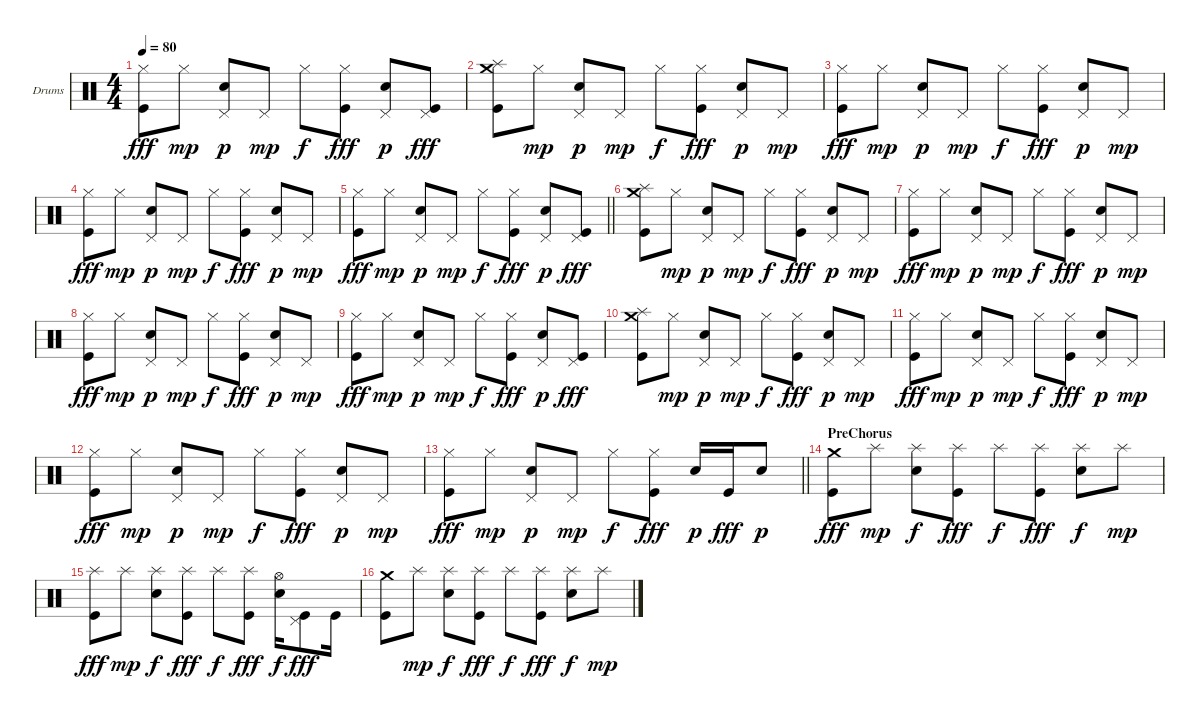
\bracketExtendMode groupsimilarinstruments
\firstSystemTrackNameOrientation horizontal
\otherSystemsTrackNameOrientation horizontal
\track ("Drumkit" "Drums") {instrument percussion}
\staff {score}
\articulation defaults
\ts (4 4)
\tempo 80
\clef neutral
\ks c
("Kick (hit)" "Hi-Hat (closed)").8{dy fff} "Hi-Hat (closed)".8{dy mp} ("Pedal Hi-Hat (hit)" "Snare (hit) 2").8{dy p} "Pedal Hi-Hat (hit)".8{dy mp} "Hi-Hat (closed)".8{dy f} ("Kick (hit)" "Hi-Hat (closed)").8{dy fff} ("Pedal Hi-Hat (hit)" "Snare (hit) 2").8{dy p} ("Kick (hit)" "Pedal Hi-Hat (hit)").8{dy fff} |
("Kick (hit)" "Crash medium (hit)" "Splash (hit)").8 "Hi-Hat (closed)".8{dy mp} ("Pedal Hi-Hat (hit)" "Snare (hit) 2").8{dy p} "Pedal Hi-Hat (hit)".8{dy mp} "Hi-Hat (closed)".8{dy f} ("Kick (hit)" "Hi-Hat (closed)").8{dy fff} ("Pedal Hi-Hat (hit)" "Snare (hit) 2").8{dy p} "Pedal Hi-Hat (hit)".8{dy mp} |
("Kick (hit)" "Hi-Hat (closed)").8{dy fff} "Hi-Hat (closed)".8{dy mp} ("Pedal Hi-Hat (hit)" "Snare (hit) 2").8{dy p} "Pedal Hi-Hat (hit)".8{dy mp} "Hi-Hat (closed)".8{dy f} ("Kick (hit)" "Hi-Hat (closed)").8{dy fff} ("Pedal Hi-Hat (hit)" "Snare (hit) 2").8{dy p} "Pedal Hi-Hat (hit)".8{dy mp} |
("Kick (hit)" "Hi-Hat (closed)").8{dy fff} "Hi-Hat (closed)".8{dy mp} ("Pedal Hi-Hat (hit)" "Snare (hit) 2").8{dy p} "Pedal Hi-Hat (hit)".8{dy mp} "Hi-Hat (closed)".8{dy f} ("Kick (hit)" "Hi-Hat (closed)").8{dy fff} ("Pedal Hi-Hat (hit)" "Snare (hit) 2").8{dy p} "Pedal Hi-Hat (hit)".8{dy mp} |
\barLineRight lightlight
("Kick (hit)" "Hi-Hat (closed)").8{dy fff} "Hi-Hat (closed)".8{dy mp} ("Pedal Hi-Hat (hit)" "Snare (hit) 2").8{dy p} "Pedal Hi-Hat (hit)".8{dy mp} "Hi-Hat (closed)".8{dy f} ("Kick (hit)" "Hi-Hat (closed)").8{dy fff} ("Pedal Hi-Hat (hit)" "Snare (hit) 2").8{dy p} ("Kick (hit)" "Pedal Hi-Hat (hit)").8{dy fff} |
("Kick (hit)" "Crash medium (hit)" "Splash (hit)").8 "Hi-Hat (closed)".8{dy mp} ("Pedal Hi-Hat (hit)" "Snare (hit) 2").8{dy p} "Pedal Hi-Hat (hit)".8{dy mp} "Hi-Hat (closed)".8{dy f} ("Kick (hit)" "Hi-Hat (closed)").8{dy fff} ("Pedal Hi-Hat (hit)" "Snare (hit) 2").8{dy p} "Pedal Hi-Hat (hit)".8{dy mp} |
("Kick (hit)" "Hi-Hat (closed)").8{dy fff} "Hi-Hat (closed)".8{dy mp} ("Pedal Hi-Hat (hit)" "Snare (hit) 2").8{dy p} "Pedal Hi-Hat (hit)".8{dy mp} "Hi-Hat (closed)".8{dy f} ("Kick (hit)" "Hi-Hat (closed)").8{dy fff} ("Pedal Hi-Hat (hit)" "Snare (hit) 2").8{dy p} "Pedal Hi-Hat (hit)".8{dy mp} |
("Kick (hit)" "Hi-Hat (closed)").8{dy fff} "Hi-Hat (closed)".8{dy mp} ("Pedal Hi-Hat (hit)" "Snare (hit) 2").8{dy p} "Pedal Hi-Hat (hit)".8{dy mp} "Hi-Hat (closed)".8{dy f} ("Kick (hit)" "Hi-Hat (closed)").8{dy fff} ("Pedal Hi-Hat (hit)" "Snare (hit) 2").8{dy p} "Pedal Hi-Hat (hit)".8{dy mp} |
("Kick (hit)" "Hi-Hat (closed)").8{dy fff} "Hi-Hat (closed)".8{dy mp} ("Pedal Hi-Hat (hit)" "Snare (hit) 2").8{dy p} "Pedal Hi-Hat (hit)".8{dy mp} "Hi-Hat (closed)".8{dy f} ("Kick (hit)" "Hi-Hat (closed)").8{dy fff} ("Pedal Hi-Hat (hit)" "Snare (hit) 2").8{dy p} ("Kick (hit)" "Pedal Hi-Hat (hit)").8{dy fff} |
("Kick (hit)" "Crash medium (hit)" "Splash (hit)").8 "Hi-Hat (closed)".8{dy mp} ("Pedal Hi-Hat (hit)" "Snare (hit) 2").8{dy p} "Pedal Hi-Hat (hit)".8{dy mp} "Hi-Hat (closed)".8{dy f} ("Kick (hit)" "Hi-Hat (closed)").8{dy fff} ("Pedal Hi-Hat (hit)" "Snare (hit) 2").8{dy p} "Pedal Hi-Hat (hit)".8{dy mp} |
("Kick (hit)" "Hi-Hat (closed)").8{dy fff} "Hi-Hat (closed)".8{dy mp} ("Pedal Hi-Hat (hit)" "Snare (hit) 2").8{dy p} "Pedal Hi-Hat (hit)".8{dy mp} "Hi-Hat (closed)".8{dy f} ("Kick (hit)" "Hi-Hat (closed)").8{dy fff} ("Pedal Hi-Hat (hit)" "Snare (hit) 2").8{dy p} "Pedal Hi-Hat (hit)".8{dy mp} |
("Kick (hit)" "Hi-Hat (closed)").8{dy fff} "Hi-Hat (closed)".8{dy mp} ("Pedal Hi-Hat (hit)" "Snare (hit) 2").8{dy p} "Pedal Hi-Hat (hit)".8{dy mp} "Hi-Hat (closed)".8{dy f} ("Kick (hit)" "Hi-Hat (closed)").8{dy fff} ("Pedal Hi-Hat (hit)" "Snare (hit) 2").8{dy p} "Pedal Hi-Hat (hit)".8{dy mp} |
\barLineRight lightlight
("Kick (hit)" "Hi-Hat (closed)").8{dy fff} "Hi-Hat (closed)".8{dy mp} ("Pedal Hi-Hat (hit)" "Snare (hit) 2").8{dy p} "Pedal Hi-Hat (hit)".8{dy mp} "Hi-Hat (closed)".8{dy f} ("Kick (hit)" "Hi-Hat (closed)").8{dy fff} "Snare (hit) 2".16{dy p} "Kick (hit)".16{dy fff} "Snare (hit) 2".8{dy p} |
\section ("" "PreChorus")
("Kick (hit)" "Crash medium (hit)").8{dy fff} "Splash (hit)".8{dy mp} ("Splash (hit)" "Snare (hit) 2").8{dy f} ("Kick (hit)" "Splash (hit)").8{dy fff} "Splash (hit)".8{dy f} ("Kick (hit)" "Splash (hit)").8{dy fff} ("Splash (hit)" "Snare (hit) 2").8{dy f} "Splash (hit)".8{dy mp} |
("Kick (hit)" "Splash (hit)").8{dy fff} "Splash (hit)".8{dy mp} ("Splash (hit)" "Snare (hit) 2").8{dy f} ("Kick (hit)" "Splash (hit)").8{dy fff} "Splash (hit)".8{dy f} ("Kick (hit)" "Splash (hit)").8{dy fff} ("Hi-Hat (open)" "Snare (hit) 2").16{dy f} ("Kick (hit)" "Pedal Hi-Hat (hit)").8{dy fff} "Kick (hit)".16 |
("Kick (hit)" "Crash medium (hit)").8 "Splash (hit)".8{dy mp} ("Splash (hit)" "Snare (hit) 2").8{dy f} ("Kick (hit)" "Splash (hit)").8{dy fff} "Splash (hit)".8{dy f} ("Kick (hit)" "Splash (hit)").8{dy fff} ("Splash (hit)" "Snare (hit) 2").8{dy f} "Splash (hit)".8{dy mp}
